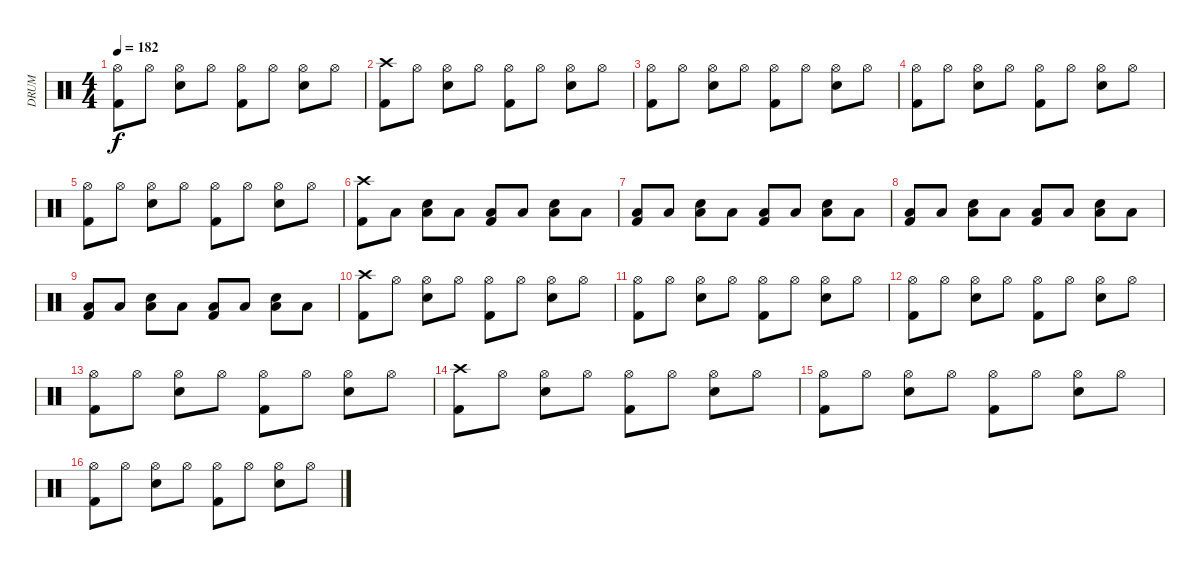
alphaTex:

\track ("DRUM" "DRUM") {instrument percussion}
\staff {score}
\articulation defaults
\ts (4 4)
\tempo 182
\clef neutral
\ks c
("Hi-Hat (open)" "Kick (hit) 2").8{dy f} "Hi-Hat (open)".8{volume 9} ("Hi-Hat (open)" "Snare (hit) 2").8 "Hi-Hat (open)".8{volume 9} ("Hi-Hat (open)" "Kick (hit) 2").8 "Hi-Hat (open)".8{volume 9} ("Hi-Hat (open)" "Snare (hit) 2").8 "Hi-Hat (open)".8{volume 9} |
("Crash high (hit)" "Kick (hit) 2").8 "Hi-Hat (open)".8{volume 9} ("Hi-Hat (open)" "Snare (hit) 2").8 "Hi-Hat (open)".8{volume 9} ("Hi-Hat (open)" "Kick (hit) 2").8 "Hi-Hat (open)".8{volume 9} ("Hi-Hat (open)" "Snare (hit) 2").8 "Hi-Hat (open)".8{volume 9} |
("Hi-Hat (open)" "Kick (hit) 2").8 "Hi-Hat (open)".8{volume 9} ("Hi-Hat (open)" "Snare (hit) 2").8 "Hi-Hat (open)".8{volume 9} ("Hi-Hat (open)" "Kick (hit) 2").8 "Hi-Hat (open)".8{volume 9} ("Hi-Hat (open)" "Snare (hit) 2").8 "Hi-Hat (open)".8{volume 9} |
("Hi-Hat (open)" "Kick (hit) 2").8 "Hi-Hat (open)".8{volume 9} ("Hi-Hat (open)" "Snare (hit) 2").8 "Hi-Hat (open)".8{volume 9} ("Hi-Hat (open)" "Kick (hit) 2").8 "Hi-Hat (open)".8{volume 9} ("Hi-Hat (open)" "Snare (hit) 2").8 "Hi-Hat (open)".8{volume 9} |
("Hi-Hat (open)" "Kick (hit) 2").8 "Hi-Hat (open)".8{volume 9} ("Hi-Hat (open)" "Snare (hit) 2").8 "Hi-Hat (open)".8{volume 9} ("Hi-Hat (open)" "Kick (hit) 2").8 "Hi-Hat (open)".8{volume 9} ("Hi-Hat (open)" "Snare (hit) 2").8 "Hi-Hat (open)".8{volume 9} |
("Crash high (hit)" "Kick (hit) 2").8 "Low Floor Tom (hit)".8{volume 9} ("Low Floor Tom (hit)" "Snare (hit) 2").8 "Low Floor Tom (hit)".8{volume 9} ("Low Floor Tom (hit)" "Kick (hit) 2").8 "Low Floor Tom (hit)".8{volume 9} ("Low Floor Tom (hit)" "Snare (hit) 2").8 "Low Floor Tom (hit)".8 |
("Low Floor Tom (hit)" "Kick (hit) 2").8 "Low Floor Tom (hit)".8{volume 9} ("Low Floor Tom (hit)" "Snare (hit) 2").8 "Low Floor Tom (hit)".8{volume 9} ("Low Floor Tom (hit)" "Kick (hit) 2").8 "Low Floor Tom (hit)".8{volume 9} ("Low Floor Tom (hit)" "Snare (hit) 2").8 "Low Floor Tom (hit)".8 |
("Low Floor Tom (hit)" "Kick (hit) 2").8 "Low Floor Tom (hit)".8{volume 9} ("Low Floor Tom (hit)" "Snare (hit) 2").8 "Low Floor Tom (hit)".8{volume 9} ("Low Floor Tom (hit)" "Kick (hit) 2").8 "Low Floor Tom (hit)".8{volume 9} ("Low Floor Tom (hit)" "Snare (hit) 2").8 "Low Floor Tom (hit)".8 |
("Low Floor Tom (hit)" "Kick (hit) 2").8 "Low Floor Tom (hit)".8{volume 9} ("Low Floor Tom (hit)" "Snare (hit) 2").8 "Low Floor Tom (hit)".8{volume 9} ("Low Floor Tom (hit)" "Kick (hit) 2").8 "Low Floor Tom (hit)".8{volume 9} ("Low Floor Tom (hit)" "Snare (hit) 2").8 "Low Floor Tom (hit)".8 |
("Crash high (hit)" "Kick (hit) 2").8 "Hi-Hat (open)".8{volume 9} ("Hi-Hat (open)" "Snare (hit) 2").8 "Hi-Hat (open)".8{volume 9} ("Hi-Hat (open)" "Kick (hit) 2").8 "Hi-Hat (open)".8{volume 9} ("Hi-Hat (open)" "Snare (hit) 2").8 "Hi-Hat (open)".8{volume 9} |
("Hi-Hat (open)" "Kick (hit) 2").8 "Hi-Hat (open)".8{volume 9} ("Hi-Hat (open)" "Snare (hit) 2").8 "Hi-Hat (open)".8{volume 9} ("Hi-Hat (open)" "Kick (hit) 2").8 "Hi-Hat (open)".8{volume 9} ("Hi-Hat (open)" "Snare (hit) 2").8 "Hi-Hat (open)".8{volume 9} |
("Hi-Hat (open)" "Kick (hit) 2").8 "Hi-Hat (open)".8{volume 9} ("Hi-Hat (open)" "Snare (hit) 2").8 "Hi-Hat (open)".8{volume 9} ("Hi-Hat (open)" "Kick (hit) 2").8 "Hi-Hat (open)".8{volume 9} ("Hi-Hat (open)" "Snare (hit) 2").8 "Hi-Hat (open)".8{volume 9} |
("Hi-Hat (open)" "Kick (hit) 2").8 "Hi-Hat (open)".8{volume 9} ("Hi-Hat (open)" "Snare (hit) 2").8 "Hi-Hat (open)".8{volume 9} ("Hi-Hat (open)" "Kick (hit) 2").8 "Hi-Hat (open)".8{volume 9} ("Hi-Hat (open)" "Snare (hit) 2").8 "Hi-Hat (open)".8{volume 9} |
("Crash high (hit)" "Kick (hit) 2").8 "Hi-Hat (open)".8{volume 9} ("Hi-Hat (open)" "Snare (hit) 2").8 "Hi-Hat (open)".8{volume 9} ("Hi-Hat (open)" "Kick (hit) 2").8 "Hi-Hat (open)".8{volume 9} ("Hi-Hat (open)" "Snare (hit) 2").8 "Hi-Hat (open)".8{volume 9} |
("Hi-Hat (open)" "Kick (hit) 2").8 "Hi-Hat (open)".8{volume 9} ("Hi-Hat (open)" "Snare (hit) 2").8 "Hi-Hat (open)".8{volume 9} ("Hi-Hat (open)" "Kick (hit) 2").8 "Hi-Hat (open)".8{volume 9} ("Hi-Hat (open)" "Snare (hit) 2").8 "Hi-Hat (open)".8{volume 9} |
("Hi-Hat (open)" "Kick (hit) 2").8 "Hi-Hat (open)".8{volume 9} ("Hi-Hat (open)" "Snare (hit) 2").8 "Hi-Hat (open)".8{volume 9} ("Hi-Hat (open)" "Kick (hit) 2").8 "Hi-Hat (open)".8{volume 9} ("Hi-Hat (open)" "Snare (hit) 2").8 "Hi-Hat (open)".8{volume 9}
